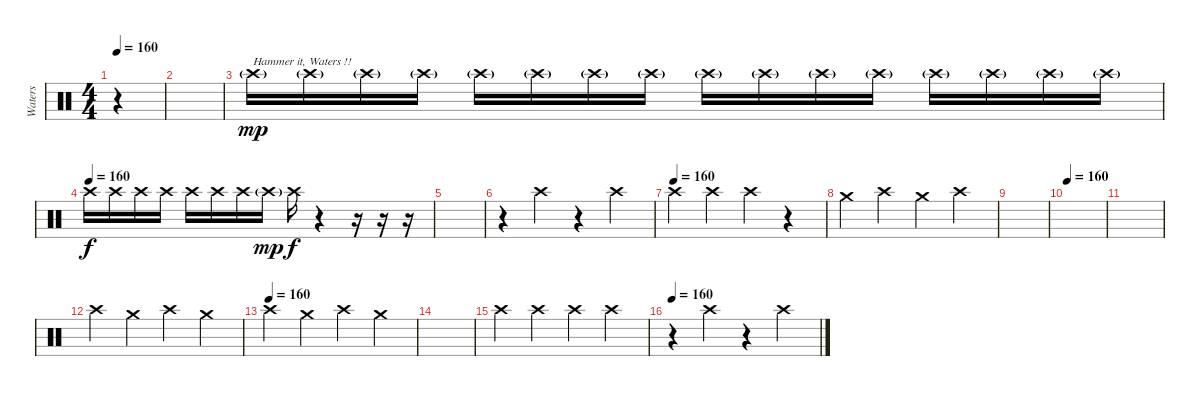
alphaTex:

\track ("Waters " "Waters ") {instrument percussion}
\staff {score}
\articulation defaults
\ts (4 4)
\tempo 160
\clef neutral
\ks c
r.4{dy f} |
|
"Crash high (hit)"{g}.16{txt "Hammer it, Waters !!" dy mp} "Crash high (hit)"{g}.16 "Crash high (hit)"{g}.16 "Crash high (hit)"{g}.16 "Crash high (hit)"{g}.16 "Crash high (hit)"{g}.16 "Crash high (hit)"{g}.16 "Crash high (hit)"{g}.16 "Crash high (hit)"{g}.16 "Crash high (hit)"{g}.16 "Crash high (hit)"{g}.16 "Crash high (hit)"{g}.16 "Crash high (hit)"{g}.16 "Crash high (hit)"{g}.16 "Crash high (hit)"{g}.16 "Crash high (hit)"{g}.16 |
\tempo (160)
"Crash high (hit)".16{dy f} "Crash high (hit)".16 "Crash high (hit)".16 "Crash high (hit)".16 "Crash high (hit)".16 "Crash high (hit)".16 "Crash high (hit)".16 "Crash high (hit)"{g}.16{dy mp} "Crash high (hit)".16{dy f} r.4 r.16 r.16 r.16 |
|
r.4 "Crash high (hit)".4 r.4 "Crash high (hit)".4 |
\tempo (160)
"Crash high (hit)".4 "Crash high (hit)".4 "Crash high (hit)".4 r.4 |
"Crash medium (hit)".4 "Crash high (hit)".4 "Crash medium (hit)".4 "Crash high (hit)".4 |
|
\tempo 160
|
|
"Crash high (hit)".4 "Crash medium (hit)".4 "Crash high (hit)".4 "Crash medium (hit)".4 |
\tempo (160)
"Crash high (hit)".4 "Crash medium (hit)".4 "Crash high (hit)".4 "Crash medium (hit)".4 |
|
"Crash high (hit)".4 "Crash high (hit)".4 "Crash high (hit)".4 "Crash high (hit)".4 |
\tempo 160
r.4 "Crash high (hit)".4 r.4 "Crash high (hit)".4
